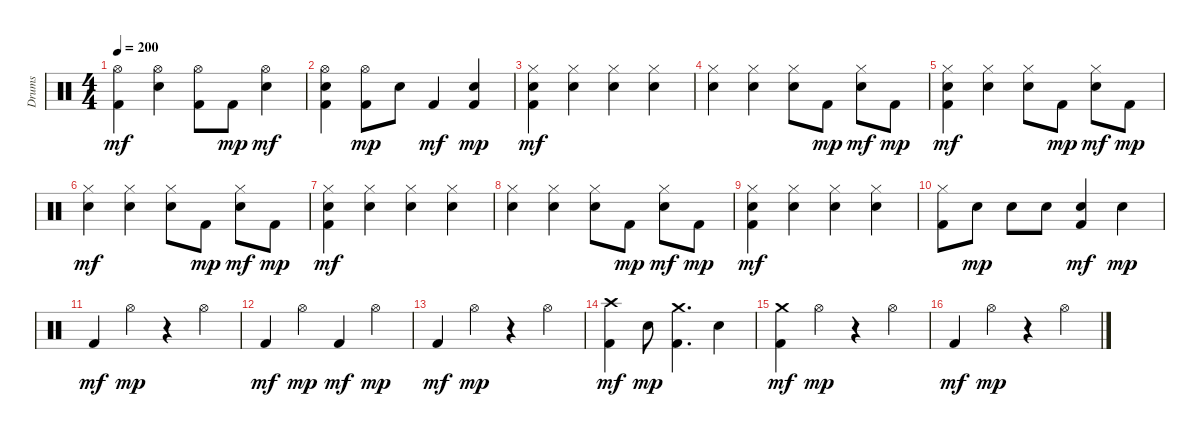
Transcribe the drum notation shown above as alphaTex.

\track ("Drums" "Drums") {instrument percussion}
\staff {score}
\articulation defaults
\ts (4 4)
\tempo 200
\clef neutral
\ks c
("Hi-Hat (open)" "Kick (hit) 2").4{dy mf} ("Snare (hit) 2" "Hi-Hat (open)").4 ("Hi-Hat (open)" "Kick (hit) 2").8 "Kick (hit) 2".8{dy mp} ("Snare (hit) 2" "Hi-Hat (open)").4{dy mf} |
("Snare (hit) 2" "Hi-Hat (open)" "Kick (hit) 2").4 ("Hi-Hat (open)" "Kick (hit) 2").8{dy mp} "Snare (hit) 2".8 "Kick (hit) 2".4{dy mf} ("Snare (hit) 2" "Kick (hit) 2").4{dy mp} |
("Snare (hit) 2" "Hi-Hat (closed)" "Kick (hit) 2").4{dy mf} ("Snare (hit) 2" "Hi-Hat (closed)").4 ("Snare (hit) 2" "Hi-Hat (closed)").4 ("Snare (hit) 2" "Hi-Hat (closed)").4 |
("Snare (hit) 2" "Hi-Hat (closed)").4 ("Snare (hit) 2" "Hi-Hat (closed)").4 ("Snare (hit) 2" "Hi-Hat (closed)").8 "Kick (hit) 2".8{dy mp} ("Snare (hit) 2" "Hi-Hat (closed)").8{dy mf} "Kick (hit) 2".8{dy mp} |
("Snare (hit) 2" "Hi-Hat (closed)" "Kick (hit) 2").4{dy mf} ("Snare (hit) 2" "Hi-Hat (closed)").4 ("Snare (hit) 2" "Hi-Hat (closed)").8 "Kick (hit) 2".8{dy mp} ("Snare (hit) 2" "Hi-Hat (closed)").8{dy mf} "Kick (hit) 2".8{dy mp} |
("Snare (hit) 2" "Hi-Hat (closed)").4{dy mf} ("Snare (hit) 2" "Hi-Hat (closed)").4 ("Snare (hit) 2" "Hi-Hat (closed)").8 "Kick (hit) 2".8{dy mp} ("Snare (hit) 2" "Hi-Hat (closed)").8{dy mf} "Kick (hit) 2".8{dy mp} |
("Snare (hit) 2" "Hi-Hat (closed)" "Kick (hit) 2").4{dy mf} ("Snare (hit) 2" "Hi-Hat (closed)").4 ("Snare (hit) 2" "Hi-Hat (closed)").4 ("Snare (hit) 2" "Hi-Hat (closed)").4 |
("Snare (hit) 2" "Hi-Hat (closed)").4 ("Snare (hit) 2" "Hi-Hat (closed)").4 ("Snare (hit) 2" "Hi-Hat (closed)").8 "Kick (hit) 2".8{dy mp} ("Snare (hit) 2" "Hi-Hat (closed)").8{dy mf} "Kick (hit) 2".8{dy mp} |
("Snare (hit) 2" "Hi-Hat (closed)" "Kick (hit) 2").4{dy mf} ("Snare (hit) 2" "Hi-Hat (closed)").4 ("Snare (hit) 2" "Hi-Hat (closed)").4 ("Snare (hit) 2" "Hi-Hat (closed)").4 |
("Hi-Hat (closed)" "Kick (hit) 2").8 "Snare (hit) 2".8{dy mp} "Snare (hit) 2".8 "Snare (hit) 2".8 ("Snare (hit) 2" "Kick (hit) 2").4{dy mf} "Snare (hit) 2".4{dy mp} |
"Kick (hit) 2".4{dy mf} "Hi-Hat (open)".4{dy mp} r.4 "Hi-Hat (open)".4 |
"Kick (hit) 2".4{dy mf} "Hi-Hat (open)".4{dy mp} "Kick (hit) 2".4{dy mf} "Hi-Hat (open)".4{dy mp} |
"Kick (hit) 2".4{dy mf} "Hi-Hat (open)".4{dy mp} r.4 "Hi-Hat (open)".4 |
("Crash high (hit)" "Kick (hit) 2").4{dy mf} "Snare (hit) 2".8{dy mp} ("Crash medium (hit)" "Kick (hit) 2").4{d} "Snare (hit) 2".4 |
("Crash medium (hit)" "Kick (hit) 2").4{dy mf} "Hi-Hat (open)".4{dy mp} r.4 "Hi-Hat (open)".4 |
"Kick (hit) 2".4{dy mf} "Hi-Hat (open)".4{dy mp} r.4 "Hi-Hat (open)".4
